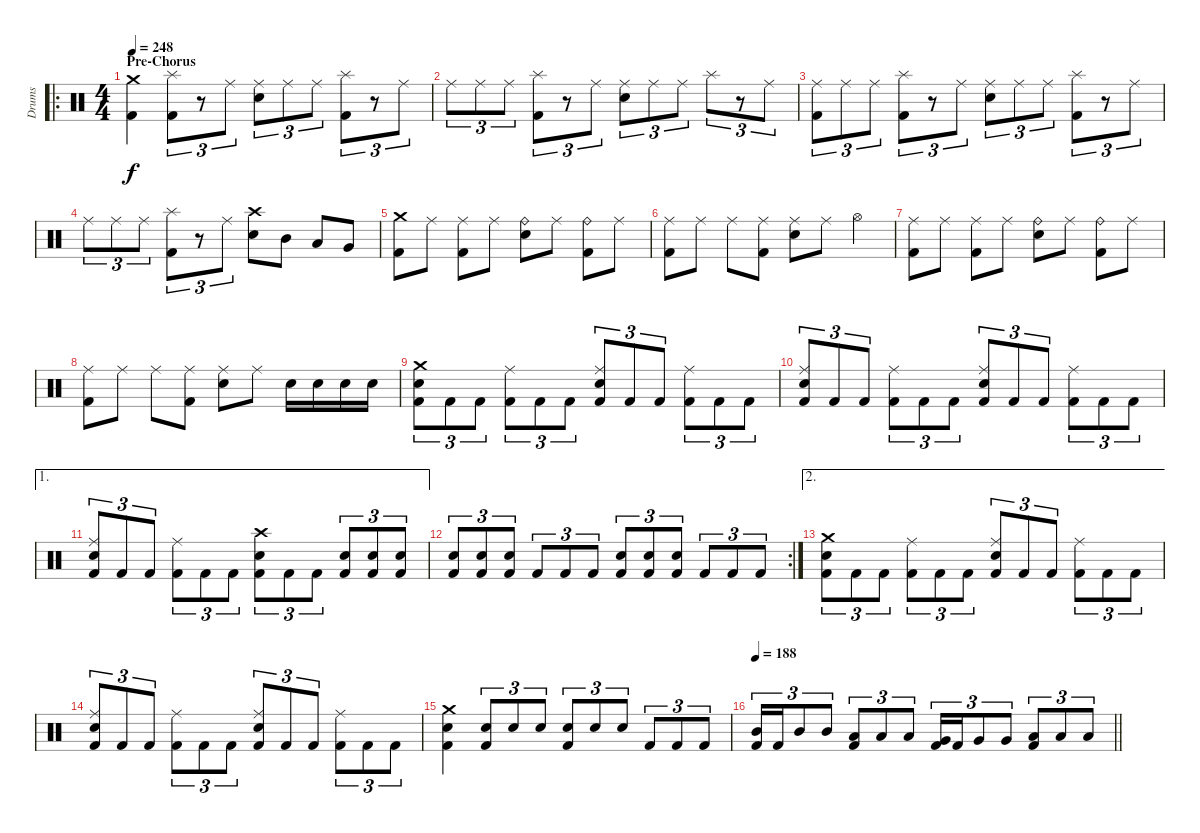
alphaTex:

\track ("Drums" "Drums") {instrument percussion}
\staff {score}
\articulation defaults
\ro
\ts (4 4)
\section ("" "Pre-Chorus")
\tempo 248
\clef neutral
\ks c
("Crash medium (hit)" "Kick (hit) 2").4{dy f} ("Splash (hit)" "Kick (hit) 2").8{tu (3 2)} r.8{tu (3 2)} "Ride (middle)".8{tu (3 2)} ("Ride (middle)" "Snare (hit) 2").8{tu (3 2)} "Ride (middle)".8{tu (3 2)} "Ride (middle)".8{tu (3 2)} ("Splash (hit)" "Kick (hit) 2").8{tu (3 2)} r.8{tu (3 2)} "Ride (middle)".8{tu (3 2)} |
"Ride (middle)".8{tu (3 2)} "Ride (middle)".8{tu (3 2)} "Ride (middle)".8{tu (3 2)} ("Splash (hit)" "Kick (hit) 2").8{tu (3 2)} r.8{tu (3 2)} "Ride (middle)".8{tu (3 2)} ("Ride (middle)" "Snare (hit) 2").8{tu (3 2)} "Ride (middle)".8{tu (3 2)} "Ride (middle)".8{tu (3 2)} "Splash (hit)".8{tu (3 2)} r.8{tu (3 2)} "Ride (middle)".8{tu (3 2)} |
("Ride (middle)" "Kick (hit) 2").8{tu (3 2)} "Ride (middle)".8{tu (3 2)} "Ride (middle)".8{tu (3 2)} ("Splash (hit)" "Kick (hit) 2").8{tu (3 2)} r.8{tu (3 2)} "Ride (middle)".8{tu (3 2)} ("Ride (middle)" "Snare (hit) 2").8{tu (3 2)} "Ride (middle)".8{tu (3 2)} "Ride (middle)".8{tu (3 2)} ("Splash (hit)" "Kick (hit) 2").8{tu (3 2)} r.8{tu (3 2)} "Ride (middle)".8{tu (3 2)} |
"Ride (middle)".8{tu (3 2)} "Ride (middle)".8{tu (3 2)} "Ride (middle)".8{tu (3 2)} ("Splash (hit)" "Kick (hit) 2").8{tu (3 2)} r.8{tu (3 2)} "Ride (middle)".8{tu (3 2)} ("Crash high (hit)" "Snare (hit) 2").8 "Mid Tom (hit)".8 "Low Tom (hit)".8 "Very Low Tom (hit)".8 |
("Crash medium (hit)" "Kick (hit) 2").8 "Ride (middle)".8 ("Ride (middle)" "Kick (hit) 2").8 "Ride (middle)".8 ("Ride (bell)" "Snare (hit) 2").8 "Ride (middle)".8 ("Ride (bell)" "Kick (hit) 2").8 "Ride (middle)".8 |
("Ride (middle)" "Kick (hit) 2").8 "Ride (middle)".8 "Ride (middle)".8 ("Ride (middle)" "Kick (hit) 2").8 ("Ride (middle)" "Snare (hit) 2").8 "Ride (middle)".8 "Hi-Hat (open)".4 |
("Ride (middle)" "Kick (hit) 2").8 "Ride (middle)".8 ("Ride (middle)" "Kick (hit) 2").8 "Ride (middle)".8 ("Ride (bell)" "Snare (hit) 2").8 "Ride (middle)".8 ("Ride (bell)" "Kick (hit) 2").8 "Ride (middle)".8 |
("Ride (middle)" "Kick (hit) 2").8 "Ride (middle)".8 "Ride (middle)".8 ("Ride (middle)" "Kick (hit) 2").8 ("Ride (middle)" "Snare (hit) 2").8 "Ride (middle)".8 "Snare (hit) 2".16 "Snare (hit) 2".16 "Snare (hit) 2".16 "Snare (hit) 2".16 |
("Crash medium (hit)" "Snare (hit) 2" "Kick (hit) 2").8{tu (3 2)} "Kick (hit) 2".8{tu (3 2)} "Kick (hit) 2".8{tu (3 2)} ("Ride (middle)" "Kick (hit) 2").8{tu (3 2)} "Kick (hit) 2".8{tu (3 2)} "Kick (hit) 2".8{tu (3 2)} ("Ride (middle)" "Snare (hit) 2" "Kick (hit) 2").8{tu (3 2)} "Kick (hit) 2".8{tu (3 2)} "Kick (hit) 2".8{tu (3 2)} ("Ride (middle)" "Kick (hit) 2").8{tu (3 2)} "Kick (hit) 2".8{tu (3 2)} "Kick (hit) 2".8{tu (3 2)} |
("Ride (middle)" "Snare (hit) 2" "Kick (hit) 2").8{tu (3 2)} "Kick (hit) 2".8{tu (3 2)} "Kick (hit) 2".8{tu (3 2)} ("Ride (middle)" "Kick (hit) 2").8{tu (3 2)} "Kick (hit) 2".8{tu (3 2)} "Kick (hit) 2".8{tu (3 2)} ("Ride (middle)" "Snare (hit) 2" "Kick (hit) 2").8{tu (3 2)} "Kick (hit) 2".8{tu (3 2)} "Kick (hit) 2".8{tu (3 2)} ("Ride (middle)" "Kick (hit) 2").8{tu (3 2)} "Kick (hit) 2".8{tu (3 2)} "Kick (hit) 2".8{tu (3 2)} |
\ae 1
("Ride (middle)" "Snare (hit) 2" "Kick (hit) 2").8{tu (3 2)} "Kick (hit) 2".8{tu (3 2)} "Kick (hit) 2".8{tu (3 2)} ("Ride (middle)" "Kick (hit) 2").8{tu (3 2)} "Kick (hit) 2".8{tu (3 2)} "Kick (hit) 2".8{tu (3 2)} ("Crash high (hit)" "Snare (hit) 2" "Kick (hit) 2").8{tu (3 2)} "Kick (hit) 2".8{tu (3 2)} "Kick (hit) 2".8{tu (3 2)} ("Snare (hit) 2" "Kick (hit) 2").8{tu (3 2)} ("Snare (hit) 2" "Kick (hit) 2").8{tu (3 2)} ("Snare (hit) 2" "Kick (hit) 2").8{tu (3 2)} |
\rc 2
("Snare (hit) 2" "Kick (hit) 2").8{tu (3 2)} ("Snare (hit) 2" "Kick (hit) 2").8{tu (3 2)} ("Snare (hit) 2" "Kick (hit) 2").8{tu (3 2)} "Kick (hit) 2".8{tu (3 2)} "Kick (hit) 2".8{tu (3 2)} "Kick (hit) 2".8{tu (3 2)} ("Snare (hit) 2" "Kick (hit) 2").8{tu (3 2)} ("Snare (hit) 2" "Kick (hit) 2").8{tu (3 2)} ("Snare (hit) 2" "Kick (hit) 2").8{tu (3 2)} "Kick (hit) 2".8{tu (3 2)} "Kick (hit) 2".8{tu (3 2)} "Kick (hit) 2".8{tu (3 2)} |
\ae 2
("Crash medium (hit)" "Snare (hit) 2" "Kick (hit) 2").8{tu (3 2)} "Kick (hit) 2".8{tu (3 2)} "Kick (hit) 2".8{tu (3 2)} ("Ride (middle)" "Kick (hit) 2").8{tu (3 2)} "Kick (hit) 2".8{tu (3 2)} "Kick (hit) 2".8{tu (3 2)} ("Ride (middle)" "Snare (hit) 2" "Kick (hit) 2").8{tu (3 2)} "Kick (hit) 2".8{tu (3 2)} "Kick (hit) 2".8{tu (3 2)} ("Ride (middle)" "Kick (hit) 2").8{tu (3 2)} "Kick (hit) 2".8{tu (3 2)} "Kick (hit) 2".8{tu (3 2)} |
("Ride (middle)" "Snare (hit) 2" "Kick (hit) 2").8{tu (3 2)} "Kick (hit) 2".8{tu (3 2)} "Kick (hit) 2".8{tu (3 2)} ("Ride (middle)" "Kick (hit) 2").8{tu (3 2)} "Kick (hit) 2".8{tu (3 2)} "Kick (hit) 2".8{tu (3 2)} ("Ride (middle)" "Snare (hit) 2" "Kick (hit) 2").8{tu (3 2)} "Kick (hit) 2".8{tu (3 2)} "Kick (hit) 2".8{tu (3 2)} ("Ride (middle)" "Kick (hit) 2").8{tu (3 2)} "Kick (hit) 2".8{tu (3 2)} "Kick (hit) 2".8{tu (3 2)} |
("Crash medium (hit)" "Snare (hit) 2" "Kick (hit) 2").4 ("Snare (hit) 2" "Kick (hit) 2").8{tu (3 2)} "Snare (hit) 2".8{tu (3 2)} "Snare (hit) 2".8{tu (3 2)} ("Snare (hit) 2" "Kick (hit) 2").8{tu (3 2)} "Snare (hit) 2".8{tu (3 2)} "Snare (hit) 2".8{tu (3 2)} "Kick (hit) 2".8{tu (3 2)} "Kick (hit) 2".8{tu (3 2)} "Kick (hit) 2".8{tu (3 2)} |
\tempo 188
\barLineRight lightlight
("Mid Tom (hit)" "Kick (hit) 2").16{tu (3 2)} "Kick (hit) 2".16{tu (3 2)} "Mid Tom (hit)".8{tu (3 2)} "Mid Tom (hit)".8{tu (3 2)} ("Low Tom (hit)" "Kick (hit) 2").8{tu (3 2)} "Low Tom (hit)".8{tu (3 2)} "Low Tom (hit)".8{tu (3 2)} ("Very Low Tom (hit)" "Kick (hit) 2").16{tu (3 2)} "Kick (hit) 2".16{tu (3 2)} "Very Low Tom (hit)".8{tu (3 2)} "Very Low Tom (hit)".8{tu (3 2)} ("Low Floor Tom (hit)" "Kick (hit) 2").8{tu (3 2)} "Low Floor Tom (hit)".8{tu (3 2)} "Low Floor Tom (hit)".8{tu (3 2)}
